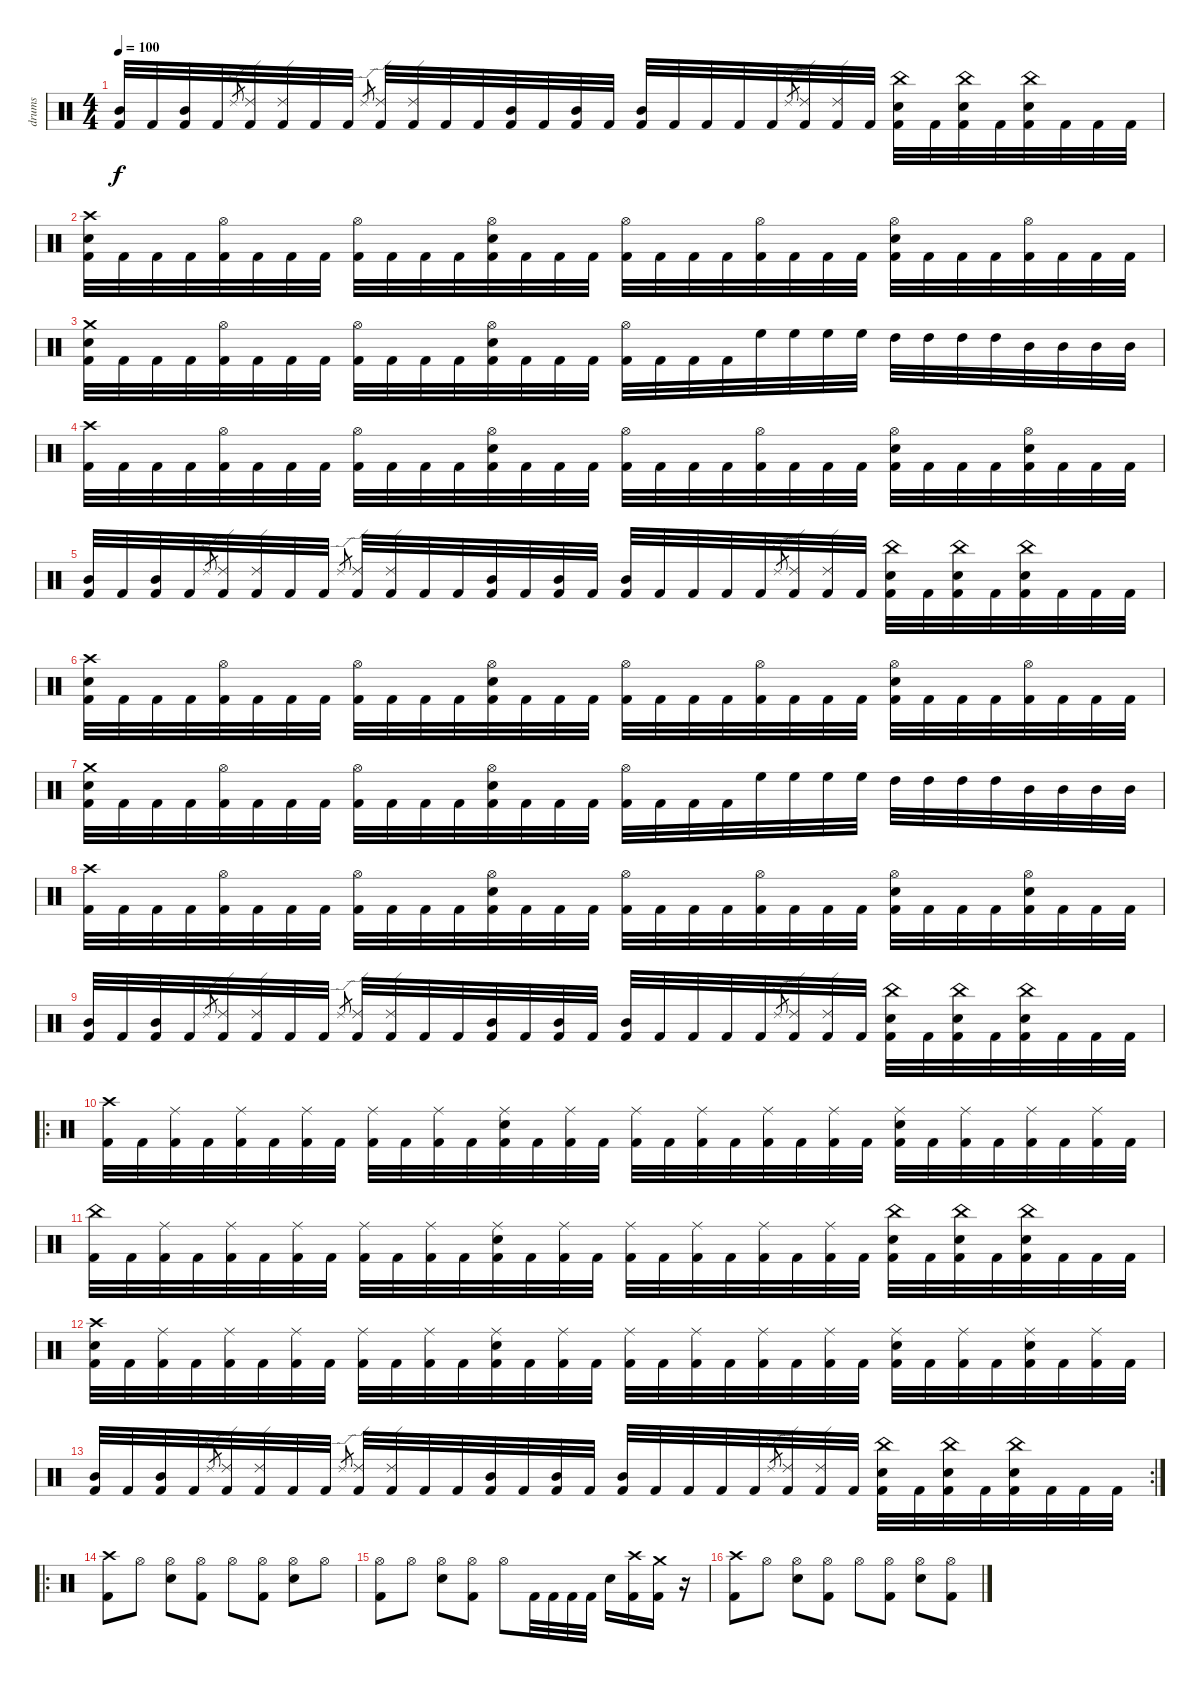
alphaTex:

\track ("drums" "drums") {instrument percussion}
\staff {score}
\articulation defaults
\ts (4 4)
\tempo 100
\clef neutral
\ks c
("Kick (hit) 2" "Mid Tom (hit)").32{dy f} "Kick (hit) 2".32 ("Kick (hit) 2" "Mid Tom (hit)").32 "Kick (hit) 2".32 "Ride (edge) 2".8{gr} ("Kick (hit) 2" "Ride (edge) 2").32 ("Kick (hit) 2" "Ride (edge) 2").32 "Kick (hit) 2".32 "Kick (hit) 2".32 "Ride (edge) 2".8{gr} ("Kick (hit) 2" "Ride (edge) 2").32 ("Kick (hit) 2" "Ride (edge) 2").32 "Kick (hit) 2".32 "Kick (hit) 2".32 ("Kick (hit) 2" "Mid Tom (hit)").32 "Kick (hit) 2".32 ("Kick (hit) 2" "Mid Tom (hit)").32 "Kick (hit) 2".32 ("Kick (hit) 2" "Mid Tom (hit)").32 "Kick (hit) 2".32 "Kick (hit) 2".32 "Kick (hit) 2".32 "Kick (hit) 2".32 "Ride (edge) 2".8{gr} ("Kick (hit) 2" "Ride (edge) 2").32 ("Kick (hit) 2" "Ride (edge) 2").32 "Kick (hit) 2".32 ("Kick (hit) 2" "Electric Snare (hit)" "China (hit)").32 "Kick (hit) 2".32 ("Kick (hit) 2" "Electric Snare (hit)" "China (hit)").32 "Kick (hit) 2".32 ("Kick (hit) 2" "Electric Snare (hit)" "China (hit)").32 "Kick (hit) 2".32 "Kick (hit) 2".32 "Kick (hit) 2".32 |
\section ("" "")
("Kick (hit) 2" "Electric Snare (hit)" "Crash high (hit)").32 "Kick (hit) 2".32 "Kick (hit) 2".32 "Kick (hit) 2".32 ("Kick (hit) 2" "Hi-Hat (open)").32 "Kick (hit) 2".32 "Kick (hit) 2".32 "Kick (hit) 2".32 ("Kick (hit) 2" "Hi-Hat (open)").32 "Kick (hit) 2".32 "Kick (hit) 2".32 "Kick (hit) 2".32 ("Kick (hit) 2" "Electric Snare (hit)" "Hi-Hat (open)").32 "Kick (hit) 2".32 "Kick (hit) 2".32 "Kick (hit) 2".32 ("Kick (hit) 2" "Hi-Hat (open)").32 "Kick (hit) 2".32 "Kick (hit) 2".32 "Kick (hit) 2".32 ("Kick (hit) 2" "Hi-Hat (open)").32 "Kick (hit) 2".32 "Kick (hit) 2".32 "Kick (hit) 2".32 ("Kick (hit) 2" "Electric Snare (hit)" "Hi-Hat (open)").32 "Kick (hit) 2".32 "Kick (hit) 2".32 "Kick (hit) 2".32 ("Kick (hit) 2" "Hi-Hat (open)").32 "Kick (hit) 2".32 "Kick (hit) 2".32 "Kick (hit) 2".32 |
("Kick (hit) 2" "Electric Snare (hit)" "Crash medium (hit)").32 "Kick (hit) 2".32 "Kick (hit) 2".32 "Kick (hit) 2".32 ("Kick (hit) 2" "Hi-Hat (open)").32 "Kick (hit) 2".32 "Kick (hit) 2".32 "Kick (hit) 2".32 ("Kick (hit) 2" "Hi-Hat (open)").32 "Kick (hit) 2".32 "Kick (hit) 2".32 "Kick (hit) 2".32 ("Kick (hit) 2" "Electric Snare (hit)" "Hi-Hat (open)").32 "Kick (hit) 2".32 "Kick (hit) 2".32 "Kick (hit) 2".32 ("Kick (hit) 2" "Hi-Hat (open)").32 "Kick (hit) 2".32 "Kick (hit) 2".32 "Kick (hit) 2".32 "High Floor Tom (hit)".32 "High Floor Tom (hit)".32 "High Floor Tom (hit)".32 "High Floor Tom (hit)".32 "High Tom (hit)".32 "High Tom (hit)".32 "High Tom (hit)".32 "High Tom (hit)".32 "Mid Tom (hit)".32 "Mid Tom (hit)".32 "Mid Tom (hit)".32 "Mid Tom (hit)".32 |
("Kick (hit) 2" "Crash high (hit)").32 "Kick (hit) 2".32 "Kick (hit) 2".32 "Kick (hit) 2".32 ("Kick (hit) 2" "Hi-Hat (open)").32 "Kick (hit) 2".32 "Kick (hit) 2".32 "Kick (hit) 2".32 ("Kick (hit) 2" "Hi-Hat (open)").32 "Kick (hit) 2".32 "Kick (hit) 2".32 "Kick (hit) 2".32 ("Kick (hit) 2" "Electric Snare (hit)" "Hi-Hat (open)").32 "Kick (hit) 2".32 "Kick (hit) 2".32 "Kick (hit) 2".32 ("Kick (hit) 2" "Hi-Hat (open)").32 "Kick (hit) 2".32 "Kick (hit) 2".32 "Kick (hit) 2".32 ("Kick (hit) 2" "Hi-Hat (open)").32 "Kick (hit) 2".32 "Kick (hit) 2".32 "Kick (hit) 2".32 ("Kick (hit) 2" "Electric Snare (hit)" "Hi-Hat (open)").32 "Kick (hit) 2".32 "Kick (hit) 2".32 "Kick (hit) 2".32 ("Kick (hit) 2" "Electric Snare (hit)" "Hi-Hat (open)").32 "Kick (hit) 2".32 "Kick (hit) 2".32 "Kick (hit) 2".32 |
("Kick (hit) 2" "Mid Tom (hit)").32 "Kick (hit) 2".32 ("Kick (hit) 2" "Mid Tom (hit)").32 "Kick (hit) 2".32 "Ride (edge) 2".8{gr} ("Kick (hit) 2" "Ride (edge) 2").32 ("Kick (hit) 2" "Ride (edge) 2").32 "Kick (hit) 2".32 "Kick (hit) 2".32 "Ride (edge) 2".8{gr} ("Kick (hit) 2" "Ride (edge) 2").32 ("Kick (hit) 2" "Ride (edge) 2").32 "Kick (hit) 2".32 "Kick (hit) 2".32 ("Kick (hit) 2" "Mid Tom (hit)").32 "Kick (hit) 2".32 ("Kick (hit) 2" "Mid Tom (hit)").32 "Kick (hit) 2".32 ("Kick (hit) 2" "Mid Tom (hit)").32 "Kick (hit) 2".32 "Kick (hit) 2".32 "Kick (hit) 2".32 "Kick (hit) 2".32 "Ride (edge) 2".8{gr} ("Kick (hit) 2" "Ride (edge) 2").32 ("Kick (hit) 2" "Ride (edge) 2").32 "Kick (hit) 2".32 ("Kick (hit) 2" "Electric Snare (hit)" "China (hit)").32 "Kick (hit) 2".32 ("Kick (hit) 2" "Electric Snare (hit)" "China (hit)").32 "Kick (hit) 2".32 ("Kick (hit) 2" "Electric Snare (hit)" "China (hit)").32 "Kick (hit) 2".32 "Kick (hit) 2".32 "Kick (hit) 2".32 |
("Kick (hit) 2" "Electric Snare (hit)" "Crash high (hit)").32 "Kick (hit) 2".32 "Kick (hit) 2".32 "Kick (hit) 2".32 ("Kick (hit) 2" "Hi-Hat (open)").32 "Kick (hit) 2".32 "Kick (hit) 2".32 "Kick (hit) 2".32 ("Kick (hit) 2" "Hi-Hat (open)").32 "Kick (hit) 2".32 "Kick (hit) 2".32 "Kick (hit) 2".32 ("Kick (hit) 2" "Electric Snare (hit)" "Hi-Hat (open)").32 "Kick (hit) 2".32 "Kick (hit) 2".32 "Kick (hit) 2".32 ("Kick (hit) 2" "Hi-Hat (open)").32 "Kick (hit) 2".32 "Kick (hit) 2".32 "Kick (hit) 2".32 ("Kick (hit) 2" "Hi-Hat (open)").32 "Kick (hit) 2".32 "Kick (hit) 2".32 "Kick (hit) 2".32 ("Kick (hit) 2" "Electric Snare (hit)" "Hi-Hat (open)").32 "Kick (hit) 2".32 "Kick (hit) 2".32 "Kick (hit) 2".32 ("Kick (hit) 2" "Hi-Hat (open)").32 "Kick (hit) 2".32 "Kick (hit) 2".32 "Kick (hit) 2".32 |
("Kick (hit) 2" "Electric Snare (hit)" "Crash medium (hit)").32 "Kick (hit) 2".32 "Kick (hit) 2".32 "Kick (hit) 2".32 ("Kick (hit) 2" "Hi-Hat (open)").32 "Kick (hit) 2".32 "Kick (hit) 2".32 "Kick (hit) 2".32 ("Kick (hit) 2" "Hi-Hat (open)").32 "Kick (hit) 2".32 "Kick (hit) 2".32 "Kick (hit) 2".32 ("Kick (hit) 2" "Electric Snare (hit)" "Hi-Hat (open)").32 "Kick (hit) 2".32 "Kick (hit) 2".32 "Kick (hit) 2".32 ("Kick (hit) 2" "Hi-Hat (open)").32 "Kick (hit) 2".32 "Kick (hit) 2".32 "Kick (hit) 2".32 "High Floor Tom (hit)".32 "High Floor Tom (hit)".32 "High Floor Tom (hit)".32 "High Floor Tom (hit)".32 "High Tom (hit)".32 "High Tom (hit)".32 "High Tom (hit)".32 "High Tom (hit)".32 "Mid Tom (hit)".32 "Mid Tom (hit)".32 "Mid Tom (hit)".32 "Mid Tom (hit)".32 |
("Kick (hit) 2" "Crash high (hit)").32 "Kick (hit) 2".32 "Kick (hit) 2".32 "Kick (hit) 2".32 ("Kick (hit) 2" "Hi-Hat (open)").32 "Kick (hit) 2".32 "Kick (hit) 2".32 "Kick (hit) 2".32 ("Kick (hit) 2" "Hi-Hat (open)").32 "Kick (hit) 2".32 "Kick (hit) 2".32 "Kick (hit) 2".32 ("Kick (hit) 2" "Electric Snare (hit)" "Hi-Hat (open)").32 "Kick (hit) 2".32 "Kick (hit) 2".32 "Kick (hit) 2".32 ("Kick (hit) 2" "Hi-Hat (open)").32 "Kick (hit) 2".32 "Kick (hit) 2".32 "Kick (hit) 2".32 ("Kick (hit) 2" "Hi-Hat (open)").32 "Kick (hit) 2".32 "Kick (hit) 2".32 "Kick (hit) 2".32 ("Kick (hit) 2" "Electric Snare (hit)" "Hi-Hat (open)").32 "Kick (hit) 2".32 "Kick (hit) 2".32 "Kick (hit) 2".32 ("Kick (hit) 2" "Electric Snare (hit)" "Hi-Hat (open)").32 "Kick (hit) 2".32 "Kick (hit) 2".32 "Kick (hit) 2".32 |
("Kick (hit) 2" "Mid Tom (hit)").32 "Kick (hit) 2".32 ("Kick (hit) 2" "Mid Tom (hit)").32 "Kick (hit) 2".32 "Ride (edge) 2".8{gr} ("Kick (hit) 2" "Ride (edge) 2").32 ("Kick (hit) 2" "Ride (edge) 2").32 "Kick (hit) 2".32 "Kick (hit) 2".32 "Ride (edge) 2".8{gr} ("Kick (hit) 2" "Ride (edge) 2").32 ("Kick (hit) 2" "Ride (edge) 2").32 "Kick (hit) 2".32 "Kick (hit) 2".32 ("Kick (hit) 2" "Mid Tom (hit)").32 "Kick (hit) 2".32 ("Kick (hit) 2" "Mid Tom (hit)").32 "Kick (hit) 2".32 ("Kick (hit) 2" "Mid Tom (hit)").32 "Kick (hit) 2".32 "Kick (hit) 2".32 "Kick (hit) 2".32 "Kick (hit) 2".32 "Ride (edge) 2".8{gr} ("Kick (hit) 2" "Ride (edge) 2").32 ("Kick (hit) 2" "Ride (edge) 2").32 "Kick (hit) 2".32 ("Kick (hit) 2" "Electric Snare (hit)" "China (hit)").32 "Kick (hit) 2".32 ("Kick (hit) 2" "Electric Snare (hit)" "China (hit)").32 "Kick (hit) 2".32 ("Kick (hit) 2" "Electric Snare (hit)" "China (hit)").32 "Kick (hit) 2".32 "Kick (hit) 2".32 "Kick (hit) 2".32 |
\ro
("Kick (hit) 2" "Crash high (hit)").32 "Kick (hit) 2".32 ("Kick (hit) 2" "Ride (middle)").32 "Kick (hit) 2".32 ("Kick (hit) 2" "Ride (middle)").32 "Kick (hit) 2".32 ("Kick (hit) 2" "Ride (middle)").32 "Kick (hit) 2".32 ("Kick (hit) 2" "Ride (middle)").32 "Kick (hit) 2".32 ("Kick (hit) 2" "Ride (middle)").32 "Kick (hit) 2".32 ("Kick (hit) 2" "Electric Snare (hit)" "Ride (middle)").32 "Kick (hit) 2".32 ("Kick (hit) 2" "Ride (middle)").32 "Kick (hit) 2".32 ("Kick (hit) 2" "Ride (middle)").32 "Kick (hit) 2".32 ("Kick (hit) 2" "Ride (middle)").32 "Kick (hit) 2".32 ("Kick (hit) 2" "Ride (middle)").32 "Kick (hit) 2".32 ("Kick (hit) 2" "Ride (middle)").32 "Kick (hit) 2".32 ("Kick (hit) 2" "Electric Snare (hit)" "Ride (middle)").32 "Kick (hit) 2".32 ("Kick (hit) 2" "Ride (middle)").32 "Kick (hit) 2".32 ("Kick (hit) 2" "Ride (middle)").32 "Kick (hit) 2".32 ("Kick (hit) 2" "Ride (middle)").32 "Kick (hit) 2".32 |
("Kick (hit) 2" "China (hit)").32 "Kick (hit) 2".32 ("Kick (hit) 2" "Ride (middle)").32 "Kick (hit) 2".32 ("Kick (hit) 2" "Ride (middle)").32 "Kick (hit) 2".32 ("Kick (hit) 2" "Ride (middle)").32 "Kick (hit) 2".32 ("Kick (hit) 2" "Ride (middle)").32 "Kick (hit) 2".32 ("Kick (hit) 2" "Ride (middle)").32 "Kick (hit) 2".32 ("Kick (hit) 2" "Electric Snare (hit)" "Ride (middle)").32 "Kick (hit) 2".32 ("Kick (hit) 2" "Ride (middle)").32 "Kick (hit) 2".32 ("Kick (hit) 2" "Ride (middle)").32 "Kick (hit) 2".32 ("Kick (hit) 2" "Ride (middle)").32 "Kick (hit) 2".32 ("Kick (hit) 2" "Ride (middle)").32 "Kick (hit) 2".32 ("Kick (hit) 2" "Ride (middle)").32 "Kick (hit) 2".32 ("Kick (hit) 2" "Electric Snare (hit)" "China (hit)").32 "Kick (hit) 2".32 ("Kick (hit) 2" "Electric Snare (hit)" "China (hit)").32 "Kick (hit) 2".32 ("Kick (hit) 2" "Electric Snare (hit)" "China (hit)").32 "Kick (hit) 2".32 "Kick (hit) 2".32 "Kick (hit) 2".32 |
("Kick (hit) 2" "Electric Snare (hit)" "Crash high (hit)").32 "Kick (hit) 2".32 ("Kick (hit) 2" "Ride (middle)").32 "Kick (hit) 2".32 ("Kick (hit) 2" "Ride (middle)").32 "Kick (hit) 2".32 ("Kick (hit) 2" "Ride (middle)").32 "Kick (hit) 2".32 ("Kick (hit) 2" "Ride (middle)").32 "Kick (hit) 2".32 ("Kick (hit) 2" "Ride (middle)").32 "Kick (hit) 2".32 ("Kick (hit) 2" "Electric Snare (hit)" "Ride (middle)").32 "Kick (hit) 2".32 ("Kick (hit) 2" "Ride (middle)").32 "Kick (hit) 2".32 ("Kick (hit) 2" "Ride (middle)").32 "Kick (hit) 2".32 ("Kick (hit) 2" "Ride (middle)").32 "Kick (hit) 2".32 ("Kick (hit) 2" "Ride (middle)").32 "Kick (hit) 2".32 ("Kick (hit) 2" "Ride (middle)").32 "Kick (hit) 2".32 ("Kick (hit) 2" "Electric Snare (hit)" "Ride (middle)").32 "Kick (hit) 2".32 ("Kick (hit) 2" "Ride (middle)").32 "Kick (hit) 2".32 ("Kick (hit) 2" "Electric Snare (hit)" "Ride (middle)").32 "Kick (hit) 2".32 ("Kick (hit) 2" "Ride (middle)").32 "Kick (hit) 2".32 |
\rc 2
("Kick (hit) 2" "Mid Tom (hit)").32 "Kick (hit) 2".32 ("Kick (hit) 2" "Mid Tom (hit)").32 "Kick (hit) 2".32 "Ride (edge) 2".8{gr} ("Kick (hit) 2" "Ride (edge) 2").32 ("Kick (hit) 2" "Ride (edge) 2").32 "Kick (hit) 2".32 "Kick (hit) 2".32 "Ride (edge) 2".8{gr} ("Kick (hit) 2" "Ride (edge) 2").32 ("Kick (hit) 2" "Ride (edge) 2").32 "Kick (hit) 2".32 "Kick (hit) 2".32 ("Kick (hit) 2" "Mid Tom (hit)").32 "Kick (hit) 2".32 ("Kick (hit) 2" "Mid Tom (hit)").32 "Kick (hit) 2".32 ("Kick (hit) 2" "Mid Tom (hit)").32 "Kick (hit) 2".32 "Kick (hit) 2".32 "Kick (hit) 2".32 "Kick (hit) 2".32 "Ride (edge) 2".8{gr} ("Kick (hit) 2" "Ride (edge) 2").32 ("Kick (hit) 2" "Ride (edge) 2").32 "Kick (hit) 2".32 ("Kick (hit) 2" "Electric Snare (hit)" "China (hit)").32 "Kick (hit) 2".32 ("Kick (hit) 2" "Electric Snare (hit)" "China (hit)").32 "Kick (hit) 2".32 ("Kick (hit) 2" "Electric Snare (hit)" "China (hit)").32 "Kick (hit) 2".32 "Kick (hit) 2".32 "Kick (hit) 2".32 |
\ro
("Kick (hit) 2" "Crash high (hit)").8 "Hi-Hat (open)".8 ("Electric Snare (hit)" "Hi-Hat (open)").8 ("Kick (hit) 2" "Hi-Hat (open)").8 "Hi-Hat (open)".8 ("Kick (hit) 2" "Hi-Hat (open)").8 ("Electric Snare (hit)" "Hi-Hat (open)").8 "Hi-Hat (open)".8 |
("Hi-Hat (open)" "Kick (hit) 2").8 "Hi-Hat (open)".8 ("Hi-Hat (open)" "Electric Snare (hit)").8 ("Hi-Hat (open)" "Kick (hit) 2").8 "Hi-Hat (open)".8 "Kick (hit) 2".32 "Kick (hit) 2".32 "Kick (hit) 2".32 "Kick (hit) 2".32 "Electric Snare (hit)".16 ("Crash high (hit)" "Kick (hit) 2").16 ("Crash medium (hit)" "Kick (hit) 2").16 r.16 |
("Kick (hit) 2" "Crash high (hit)").8 "Hi-Hat (open)".8 ("Electric Snare (hit)" "Hi-Hat (open)").8 ("Kick (hit) 2" "Hi-Hat (open)").8 "Hi-Hat (open)".8 ("Kick (hit) 2" "Hi-Hat (open)").8 ("Electric Snare (hit)" "Hi-Hat (open)").8 ("Kick (hit) 2" "Hi-Hat (open)").8
